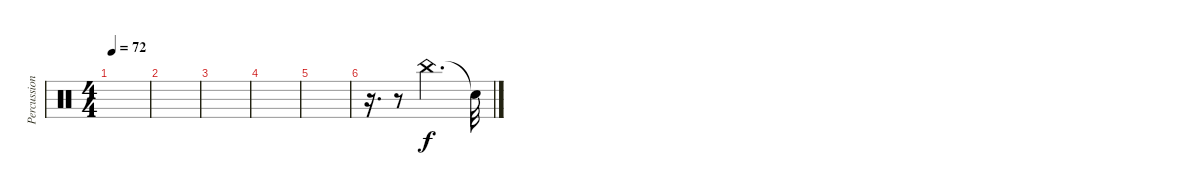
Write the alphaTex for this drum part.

\track ("Percussioni" "Percussion") {instrument percussion}
\staff {score}
\articulation defaults
\ts (4 4)
\tempo 72
\clef neutral
\ks c
|
|
|
|
|
r.16{d} r.8 "China (hit)".2{d} "Snare (hit)"{t}.32
